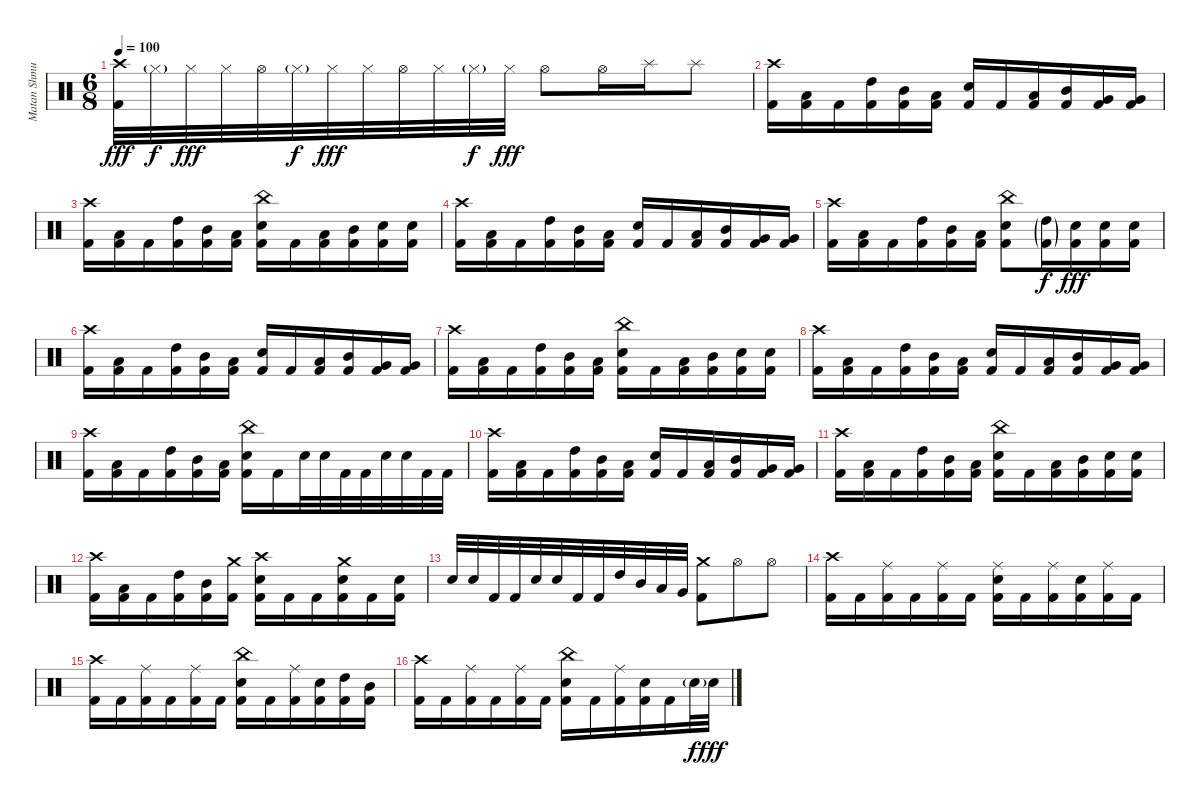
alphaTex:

\track ("Matan Shmuely" "Matan Shmu") {instrument percussion}
\staff {score}
\articulation defaults
\ts (6 8)
\tempo 100
\clef neutral
\ks c
("Kick (hit) 2" "Crash high (hit)").32{dy fff} "Hi-Hat (closed)"{g}.32{dy f} "Hi-Hat (closed)".32{dy fff} "Hi-Hat (closed)".32 "Hi-Hat (open)".32 "Hi-Hat (closed)"{g}.32{dy f} "Hi-Hat (closed)".32{dy fff} "Hi-Hat (closed)".32 "Hi-Hat (open)".32 "Hi-Hat (closed)".32 "Hi-Hat (closed)"{g}.32{dy f} "Hi-Hat (closed)".32{dy fff} "Hi-Hat (open)".8 "Hi-Hat (open)".16 "Splash (hit)".16 "Splash (hit)".8 |
("Kick (hit) 2" "Crash high (hit)").16 ("Kick (hit) 2" "Low Tom (hit)").16 "Kick (hit) 2".16 ("Kick (hit) 2" "High Tom (hit)").16 ("Kick (hit) 2" "Mid Tom (hit)").16 ("Kick (hit) 2" "Low Tom (hit)").16 ("Kick (hit) 2" "Electric Snare (hit)").16 "Kick (hit) 2".16 ("Kick (hit) 2" "Low Tom (hit)").16 ("Kick (hit) 2" "Mid Tom (hit)").16 ("Kick (hit) 2" "Very Low Tom (hit)").16 ("Kick (hit) 2" "Very Low Tom (hit)").16 |
("Kick (hit) 2" "Crash high (hit)").16 ("Kick (hit) 2" "Low Tom (hit)").16 "Kick (hit) 2".16 ("Kick (hit) 2" "High Tom (hit)").16 ("Kick (hit) 2" "Mid Tom (hit)").16 ("Kick (hit) 2" "Low Tom (hit)").16 ("Kick (hit) 2" "Electric Snare (hit)" "China (hit)").16 "Kick (hit) 2".16 ("Kick (hit) 2" "Low Tom (hit)").16 ("Kick (hit) 2" "Mid Tom (hit)").16 ("Kick (hit) 2" "Electric Snare (hit)").16 ("Kick (hit) 2" "Electric Snare (hit)").16 |
("Kick (hit) 2" "Crash high (hit)").16 ("Kick (hit) 2" "Low Tom (hit)").16 "Kick (hit) 2".16 ("Kick (hit) 2" "High Tom (hit)").16 ("Kick (hit) 2" "Mid Tom (hit)").16 ("Kick (hit) 2" "Low Tom (hit)").16 ("Kick (hit) 2" "Electric Snare (hit)").16 "Kick (hit) 2".16 ("Kick (hit) 2" "Low Tom (hit)").16 ("Kick (hit) 2" "Mid Tom (hit)").16 ("Kick (hit) 2" "Very Low Tom (hit)").16 ("Kick (hit) 2" "Very Low Tom (hit)").16 |
("Kick (hit) 2" "Crash high (hit)").16 ("Kick (hit) 2" "Low Tom (hit)").16 "Kick (hit) 2".16 ("Kick (hit) 2" "High Tom (hit)").16 ("Kick (hit) 2" "Mid Tom (hit)").16 ("Kick (hit) 2" "Low Tom (hit)").16 ("Kick (hit) 2" "Electric Snare (hit)" "China (hit)").8 ("Kick (hit) 2"{g} "High Tom (hit)"{g}).16{dy f} ("Kick (hit) 2" "Electric Snare (hit)").16{dy fff} ("Kick (hit) 2" "Electric Snare (hit)").16 ("Kick (hit) 2" "Electric Snare (hit)").16 |
("Kick (hit) 2" "Crash high (hit)").16 ("Kick (hit) 2" "Low Tom (hit)").16 "Kick (hit) 2".16 ("Kick (hit) 2" "High Tom (hit)").16 ("Kick (hit) 2" "Mid Tom (hit)").16 ("Kick (hit) 2" "Low Tom (hit)").16 ("Kick (hit) 2" "Electric Snare (hit)").16 "Kick (hit) 2".16 ("Kick (hit) 2" "Low Tom (hit)").16 ("Kick (hit) 2" "Mid Tom (hit)").16 ("Kick (hit) 2" "Very Low Tom (hit)").16 ("Kick (hit) 2" "Very Low Tom (hit)").16 |
("Kick (hit) 2" "Crash high (hit)").16 ("Kick (hit) 2" "Low Tom (hit)").16 "Kick (hit) 2".16 ("Kick (hit) 2" "High Tom (hit)").16 ("Kick (hit) 2" "Mid Tom (hit)").16 ("Kick (hit) 2" "Low Tom (hit)").16 ("Kick (hit) 2" "Electric Snare (hit)" "China (hit)").16 "Kick (hit) 2".16 ("Kick (hit) 2" "Low Tom (hit)").16 ("Kick (hit) 2" "Mid Tom (hit)").16 ("Kick (hit) 2" "Electric Snare (hit)").16 ("Kick (hit) 2" "Electric Snare (hit)").16 |
("Kick (hit) 2" "Crash high (hit)").16 ("Kick (hit) 2" "Low Tom (hit)").16 "Kick (hit) 2".16 ("Kick (hit) 2" "High Tom (hit)").16 ("Kick (hit) 2" "Mid Tom (hit)").16 ("Kick (hit) 2" "Low Tom (hit)").16 ("Kick (hit) 2" "Electric Snare (hit)").16 "Kick (hit) 2".16 ("Kick (hit) 2" "Low Tom (hit)").16 ("Kick (hit) 2" "Mid Tom (hit)").16 ("Kick (hit) 2" "Very Low Tom (hit)").16 ("Kick (hit) 2" "Very Low Tom (hit)").16 |
("Kick (hit) 2" "Crash high (hit)").16 ("Kick (hit) 2" "Low Tom (hit)").16 "Kick (hit) 2".16 ("Kick (hit) 2" "High Tom (hit)").16 ("Kick (hit) 2" "Mid Tom (hit)").16 ("Kick (hit) 2" "Low Tom (hit)").16 ("Kick (hit) 2" "Electric Snare (hit)" "China (hit)").16 "Kick (hit) 2".16 "Electric Snare (hit)".32 "Electric Snare (hit)".32 "Kick (hit) 2".32 "Kick (hit) 2".32 "Electric Snare (hit)".32 "Electric Snare (hit)".32 "Kick (hit) 2".32 "Kick (hit) 2".32 |
("Kick (hit) 2" "Crash high (hit)").16 ("Kick (hit) 2" "Low Tom (hit)").16 "Kick (hit) 2".16 ("Kick (hit) 2" "High Tom (hit)").16 ("Kick (hit) 2" "Mid Tom (hit)").16 ("Kick (hit) 2" "Low Tom (hit)").16 ("Kick (hit) 2" "Electric Snare (hit)").16 "Kick (hit) 2".16 ("Kick (hit) 2" "Low Tom (hit)").16 ("Kick (hit) 2" "Mid Tom (hit)").16 ("Kick (hit) 2" "Very Low Tom (hit)").16 ("Kick (hit) 2" "Very Low Tom (hit)").16 |
("Kick (hit) 2" "Crash high (hit)").16 ("Kick (hit) 2" "Low Tom (hit)").16 "Kick (hit) 2".16 ("Kick (hit) 2" "High Tom (hit)").16 ("Kick (hit) 2" "Mid Tom (hit)").16 ("Kick (hit) 2" "Low Tom (hit)").16 ("Kick (hit) 2" "Electric Snare (hit)" "China (hit)").16 "Kick (hit) 2".16 ("Kick (hit) 2" "Low Tom (hit)").16 ("Kick (hit) 2" "Mid Tom (hit)").16 ("Kick (hit) 2" "Electric Snare (hit)").16 ("Kick (hit) 2" "Electric Snare (hit)").16 |
("Kick (hit) 2" "Crash high (hit)").16 ("Kick (hit) 2" "Low Tom (hit)").16 "Kick (hit) 2".16 ("Kick (hit) 2" "High Tom (hit)").16 ("Kick (hit) 2" "Mid Tom (hit)").16 ("Kick (hit) 2" "Crash medium (hit)").16 ("Kick (hit) 2" "Electric Snare (hit)" "Crash high (hit)").16 "Kick (hit) 2".16 "Kick (hit) 2".16 ("Kick (hit) 2" "Electric Snare (hit)" "Crash medium (hit)").16 "Kick (hit) 2".16 ("Kick (hit) 2" "Electric Snare (hit)").16 |
"Electric Snare (hit)".32 "Electric Snare (hit)".32 "Kick (hit) 2".32 "Kick (hit) 2".32 "Electric Snare (hit)".32 "Electric Snare (hit)".32 "Kick (hit) 2".32 "Kick (hit) 2".32 "High Tom (hit)".32 "Mid Tom (hit)".32 "Low Tom (hit)".32 "Very Low Tom (hit)".32 ("Kick (hit) 2" "Crash medium (hit)").8 "Hi-Hat (open)".8 "Hi-Hat (open)".8 |
("Kick (hit) 2" "Crash high (hit)").16 "Kick (hit) 2".16 ("Kick (hit) 2" "Ride (middle)").16 "Kick (hit) 2".16 ("Kick (hit) 2" "Ride (middle)").16 "Kick (hit) 2".16 ("Kick (hit) 2" "Electric Snare (hit)" "Ride (middle)").16 "Kick (hit) 2".16 ("Kick (hit) 2" "Ride (middle)").16 ("Kick (hit) 2" "Electric Snare (hit)").16 ("Kick (hit) 2" "Ride (middle)").16 "Kick (hit) 2".16 |
("Kick (hit) 2" "Crash high (hit)").16 "Kick (hit) 2".16 ("Kick (hit) 2" "Ride (middle)").16 "Kick (hit) 2".16 ("Kick (hit) 2" "Ride (middle)").16 "Kick (hit) 2".16 ("Kick (hit) 2" "Electric Snare (hit)" "China (hit)").16 "Kick (hit) 2".16 ("Kick (hit) 2" "Ride (middle)").16 ("Kick (hit) 2" "Electric Snare (hit)").16 ("Kick (hit) 2" "High Tom (hit)").16 ("Kick (hit) 2" "Mid Tom (hit)").16 |
("Kick (hit) 2" "Crash high (hit)").16 "Kick (hit) 2".16 ("Kick (hit) 2" "Ride (middle)").16 "Kick (hit) 2".16 ("Kick (hit) 2" "Ride (middle)").16 "Kick (hit) 2".16 ("Kick (hit) 2" "Electric Snare (hit)" "China (hit)").16 "Kick (hit) 2".16 ("Kick (hit) 2" "Ride (middle)").16 ("Kick (hit) 2" "Electric Snare (hit)").16 "Kick (hit) 2".16 "Electric Snare (hit)"{g}.32{dy f} "Electric Snare (hit)".32{dy fff}
